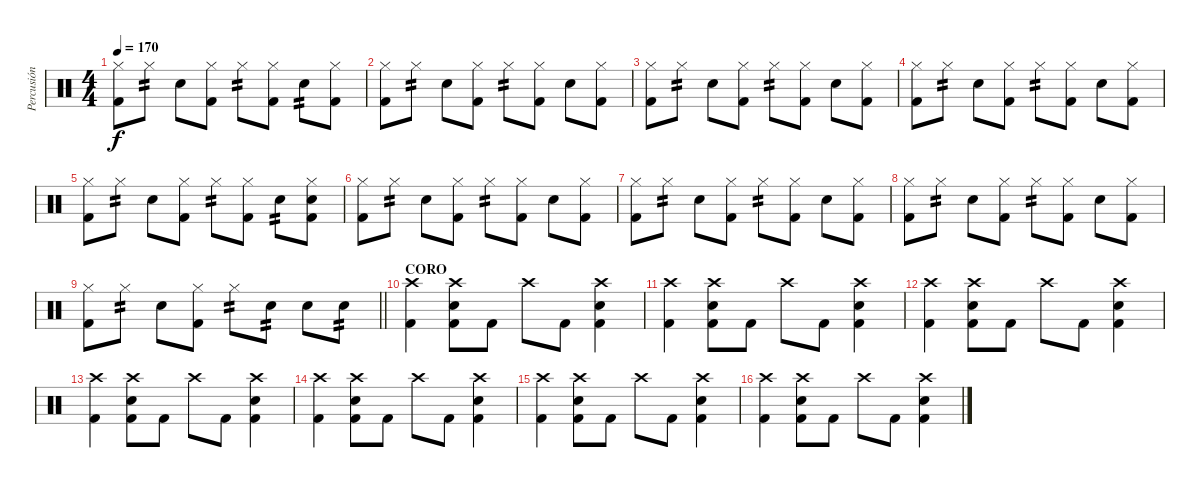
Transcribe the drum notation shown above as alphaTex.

\track ("Percusión" "Percusión") {instrument percussion}
\staff {score}
\articulation defaults
\ts (4 4)
\tempo 170
\clef neutral
\ks c
("Hi-Hat (closed)" "Kick (hit) 2").8{dy f} "Hi-Hat (closed)".8{tp 2} "Electric Snare (hit)".8 ("Hi-Hat (closed)" "Kick (hit) 2").8 "Hi-Hat (closed)".8{tp 2} ("Hi-Hat (closed)" "Kick (hit) 2").8 "Electric Snare (hit)".8{tp 2} ("Hi-Hat (closed)" "Kick (hit) 2").8 |
("Hi-Hat (closed)" "Kick (hit) 2").8 "Hi-Hat (closed)".8{tp 2} "Electric Snare (hit)".8 ("Hi-Hat (closed)" "Kick (hit) 2").8 "Hi-Hat (closed)".8{tp 2} ("Hi-Hat (closed)" "Kick (hit) 2").8 "Electric Snare (hit)".8 ("Hi-Hat (closed)" "Kick (hit) 2").8 |
("Hi-Hat (closed)" "Kick (hit) 2").8 "Hi-Hat (closed)".8{tp 2} "Electric Snare (hit)".8 ("Hi-Hat (closed)" "Kick (hit) 2").8 "Hi-Hat (closed)".8{tp 2} ("Hi-Hat (closed)" "Kick (hit) 2").8 "Electric Snare (hit)".8 ("Hi-Hat (closed)" "Kick (hit) 2").8 |
("Hi-Hat (closed)" "Kick (hit) 2").8 "Hi-Hat (closed)".8{tp 2} "Electric Snare (hit)".8 ("Hi-Hat (closed)" "Kick (hit) 2").8 "Hi-Hat (closed)".8{tp 2} ("Hi-Hat (closed)" "Kick (hit) 2").8 "Electric Snare (hit)".8 ("Hi-Hat (closed)" "Kick (hit) 2").8 |
("Hi-Hat (closed)" "Kick (hit) 2").8 "Hi-Hat (closed)".8{tp 2} "Electric Snare (hit)".8 ("Hi-Hat (closed)" "Kick (hit) 2").8 "Hi-Hat (closed)".8{tp 2} ("Hi-Hat (closed)" "Kick (hit) 2").8 "Electric Snare (hit)".8{tp 2} ("Hi-Hat (closed)" "Electric Snare (hit)" "Kick (hit) 2").8 |
("Hi-Hat (closed)" "Kick (hit) 2").8 "Hi-Hat (closed)".8{tp 2} "Electric Snare (hit)".8 ("Hi-Hat (closed)" "Kick (hit) 2").8 "Hi-Hat (closed)".8{tp 2} ("Hi-Hat (closed)" "Kick (hit) 2").8 "Electric Snare (hit)".8 ("Hi-Hat (closed)" "Kick (hit) 2").8 |
("Hi-Hat (closed)" "Kick (hit) 2").8 "Hi-Hat (closed)".8{tp 2} "Electric Snare (hit)".8 ("Hi-Hat (closed)" "Kick (hit) 2").8 "Hi-Hat (closed)".8{tp 2} ("Hi-Hat (closed)" "Kick (hit) 2").8 "Electric Snare (hit)".8 ("Hi-Hat (closed)" "Kick (hit) 2").8 |
("Hi-Hat (closed)" "Kick (hit) 2").8 "Hi-Hat (closed)".8{tp 2} "Electric Snare (hit)".8 ("Hi-Hat (closed)" "Kick (hit) 2").8 "Hi-Hat (closed)".8{tp 2} ("Hi-Hat (closed)" "Kick (hit) 2").8 "Electric Snare (hit)".8 ("Hi-Hat (closed)" "Kick (hit) 2").8 |
\barLineRight lightlight
("Hi-Hat (closed)" "Kick (hit) 2").8 "Hi-Hat (closed)".8{tp 2} "Electric Snare (hit)".8 ("Hi-Hat (closed)" "Kick (hit) 2").8 "Hi-Hat (closed)".8{tp 2} "Electric Snare (hit)".8{tp 2} "Electric Snare (hit)".8 "Electric Snare (hit)".8{tp 2} |
\section ("" "CORO")
("Crash high (hit)" "Kick (hit) 2").4 ("Crash high (hit)" "Electric Snare (hit)" "Kick (hit) 2").8 "Kick (hit) 2".8 "Crash high (hit)".8 "Kick (hit) 2".8 ("Crash high (hit)" "Electric Snare (hit)" "Kick (hit) 2").4 |
("Crash high (hit)" "Kick (hit) 2").4 ("Crash high (hit)" "Electric Snare (hit)" "Kick (hit) 2").8 "Kick (hit) 2".8 "Crash high (hit)".8 "Kick (hit) 2".8 ("Crash high (hit)" "Electric Snare (hit)" "Kick (hit) 2").4 |
("Crash high (hit)" "Kick (hit) 2").4 ("Crash high (hit)" "Electric Snare (hit)" "Kick (hit) 2").8 "Kick (hit) 2".8 "Crash high (hit)".8 "Kick (hit) 2".8 ("Crash high (hit)" "Electric Snare (hit)" "Kick (hit) 2").4 |
("Crash high (hit)" "Kick (hit) 2").4 ("Crash high (hit)" "Electric Snare (hit)" "Kick (hit) 2").8 "Kick (hit) 2".8 "Crash high (hit)".8 "Kick (hit) 2".8 ("Crash high (hit)" "Electric Snare (hit)" "Kick (hit) 2").4 |
("Crash high (hit)" "Kick (hit) 2").4 ("Crash high (hit)" "Electric Snare (hit)" "Kick (hit) 2").8 "Kick (hit) 2".8 "Crash high (hit)".8 "Kick (hit) 2".8 ("Crash high (hit)" "Electric Snare (hit)" "Kick (hit) 2").4 |
("Crash high (hit)" "Kick (hit) 2").4 ("Crash high (hit)" "Electric Snare (hit)" "Kick (hit) 2").8 "Kick (hit) 2".8 "Crash high (hit)".8 "Kick (hit) 2".8 ("Crash high (hit)" "Electric Snare (hit)" "Kick (hit) 2").4 |
("Crash high (hit)" "Kick (hit) 2").4 ("Crash high (hit)" "Electric Snare (hit)" "Kick (hit) 2").8 "Kick (hit) 2".8 "Crash high (hit)".8 "Kick (hit) 2".8 ("Crash high (hit)" "Electric Snare (hit)" "Kick (hit) 2").4
